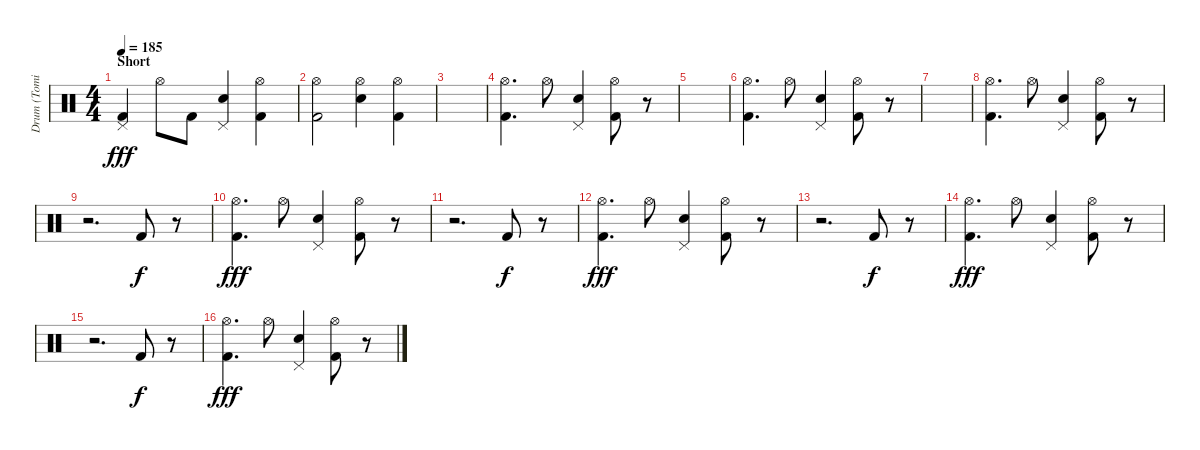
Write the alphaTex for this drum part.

\track ("Drum (Tomi)" "Drum (Tomi") {instrument percussion}
\staff {score}
\articulation defaults
\ts (4 4)
\section ("" "Short")
\tempo 185
\clef neutral
\ks c
("Pedal Hi-Hat (hit)" "Kick (hit) 2").4{dy fff} "Hi-Hat (open)".8 "Kick (hit) 2".8 ("Pedal Hi-Hat (hit)" "Electric Snare (hit)").4 ("Hi-Hat (open)" "Kick (hit) 2").4 |
("Hi-Hat (open)" "Kick (hit) 2").2 ("Hi-Hat (open)" "Electric Snare (hit)").4 ("Hi-Hat (open)" "Kick (hit) 2").4 |
|
("Hi-Hat (open)" "Kick (hit) 2").4{d} "Hi-Hat (open)".8 ("Pedal Hi-Hat (hit)" "Electric Snare (hit)").4 ("Hi-Hat (open)" "Kick (hit) 2").8 r.8 |
|
("Hi-Hat (open)" "Kick (hit) 2").4{d} "Hi-Hat (open)".8 ("Pedal Hi-Hat (hit)" "Electric Snare (hit)").4 ("Hi-Hat (open)" "Kick (hit) 2").8 r.8 |
|
("Hi-Hat (open)" "Kick (hit) 2").4{d} "Hi-Hat (open)".8 ("Pedal Hi-Hat (hit)" "Electric Snare (hit)").4 ("Hi-Hat (open)" "Kick (hit) 2").8 r.8 |
r.2{d} "Kick (hit) 2".8{dy f} r.8 |
("Hi-Hat (open)" "Kick (hit) 2").4{d dy fff} "Hi-Hat (open)".8 ("Pedal Hi-Hat (hit)" "Electric Snare (hit)").4 ("Hi-Hat (open)" "Kick (hit) 2").8 r.8 |
r.2{d} "Kick (hit) 2".8{dy f} r.8 |
("Hi-Hat (open)" "Kick (hit) 2").4{d dy fff} "Hi-Hat (open)".8 ("Pedal Hi-Hat (hit)" "Electric Snare (hit)").4 ("Hi-Hat (open)" "Kick (hit) 2").8 r.8 |
r.2{d} "Kick (hit) 2".8{dy f} r.8 |
("Hi-Hat (open)" "Kick (hit) 2").4{d dy fff} "Hi-Hat (open)".8 ("Pedal Hi-Hat (hit)" "Electric Snare (hit)").4 ("Hi-Hat (open)" "Kick (hit) 2").8 r.8 |
r.2{d} "Kick (hit) 2".8{dy f} r.8 |
("Hi-Hat (open)" "Kick (hit) 2").4{d dy fff} "Hi-Hat (open)".8 ("Pedal Hi-Hat (hit)" "Electric Snare (hit)").4 ("Hi-Hat (open)" "Kick (hit) 2").8 r.8
